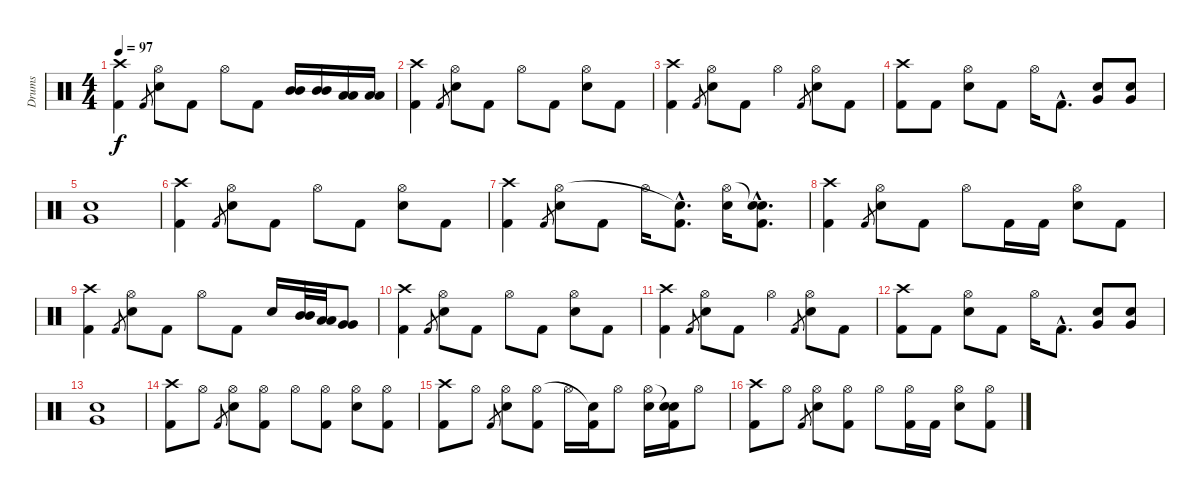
\track ("Drums" "Drums") {instrument percussion}
\staff {score}
\articulation defaults
\ts (4 4)
\tempo 97
\clef neutral
\ks c
("Kick (hit) 2" "Crash high (hit)").4{dy f} "Kick (hit) 2".8{gr} ("Electric Snare (hit)" "Hi-Hat (open)").8 "Kick (hit) 2".8 "Hi-Hat (open)".8 "Kick (hit) 2".8 ("Mid Tom (hit)" "Mid Tom (hit)").16 ("Mid Tom (hit)" "Mid Tom (hit)").16 ("Low Tom (hit)" "Low Tom (hit)").16 ("Low Tom (hit)" "Low Tom (hit)").16 |
("Kick (hit) 2" "Crash high (hit)").4{volume 10} "Kick (hit) 2".8{gr} ("Electric Snare (hit)" "Hi-Hat (open)").8 "Kick (hit) 2".8 "Hi-Hat (open)".8 "Kick (hit) 2".8 ("Electric Snare (hit)" "Hi-Hat (open)").8 "Kick (hit) 2".8 |
("Kick (hit) 2" "Crash high (hit)").4 "Kick (hit) 2".8{gr} ("Electric Snare (hit)" "Hi-Hat (open)").8 "Kick (hit) 2".8 "Hi-Hat (open)".4 "Kick (hit) 2".8{gr} ("Electric Snare (hit)" "Hi-Hat (open)").8 "Kick (hit) 2".8 |
("Kick (hit) 2" "Crash high (hit)").8 "Kick (hit) 2".8 ("Electric Snare (hit)" "Hi-Hat (open)").8 "Kick (hit) 2".8 "Hi-Hat (open)".16 "Kick (hit) 2"{hac}.8{d} ("Electric Snare (hit)" "Very Low Tom (hit)").8 ("Electric Snare (hit)" "Very Low Tom (hit)").8 |
("Electric Snare (hit)" "Very Low Tom (hit)").1 |
("Kick (hit) 2" "Crash high (hit)").4{volume 10} "Kick (hit) 2".8{gr} ("Electric Snare (hit)" "Hi-Hat (open)").8 "Kick (hit) 2".8 "Hi-Hat (open)".8 "Kick (hit) 2".8 ("Electric Snare (hit)" "Hi-Hat (open)").8 "Kick (hit) 2".8 |
("Kick (hit) 2" "Crash high (hit)").4 "Kick (hit) 2".8{gr} ("Electric Snare (hit)" "Hi-Hat (open)").8 "Kick (hit) 2".8 "Hi-Hat (open)".16 ("Kick (hit) 2"{hac} "Snare (hit)"{hac t}).8{d} ("Electric Snare (hit)" "Hi-Hat (open)").16 ("Kick (hit) 2"{hac} "Snare (hit)"{hac t} "Snare (hit)"{hac}).8{d} |
("Kick (hit) 2" "Crash high (hit)").4 "Kick (hit) 2".8{gr} ("Electric Snare (hit)" "Hi-Hat (open)").8 "Kick (hit) 2".8 "Hi-Hat (open)".8 "Kick (hit) 2".16 "Kick (hit) 2".16 ("Electric Snare (hit)" "Hi-Hat (open)").8 "Kick (hit) 2".8 |
("Kick (hit) 2" "Crash high (hit)").4 "Kick (hit) 2".8{gr} ("Electric Snare (hit)" "Hi-Hat (open)").8 "Kick (hit) 2".8 "Hi-Hat (open)".8 "Kick (hit) 2".8 "Electric Snare (hit)".16 ("Mid Tom (hit)" "Mid Tom (hit)").32 ("Low Tom (hit)" "Low Tom (hit)").32 ("Very Low Tom (hit)" "Very Low Tom (hit)").8 |
("Kick (hit) 2" "Crash high (hit)").4{volume 10} "Kick (hit) 2".8{gr} ("Electric Snare (hit)" "Hi-Hat (open)").8 "Kick (hit) 2".8 "Hi-Hat (open)".8 "Kick (hit) 2".8 ("Electric Snare (hit)" "Hi-Hat (open)").8 "Kick (hit) 2".8 |
("Kick (hit) 2" "Crash high (hit)").4 "Kick (hit) 2".8{gr} ("Electric Snare (hit)" "Hi-Hat (open)").8 "Kick (hit) 2".8 "Hi-Hat (open)".4 "Kick (hit) 2".8{gr} ("Electric Snare (hit)" "Hi-Hat (open)").8 "Kick (hit) 2".8 |
("Kick (hit) 2" "Crash high (hit)").8 "Kick (hit) 2".8 ("Electric Snare (hit)" "Hi-Hat (open)").8 "Kick (hit) 2".8 "Hi-Hat (open)".16 "Kick (hit) 2"{hac}.8{d} ("Electric Snare (hit)" "Very Low Tom (hit)").8 ("Electric Snare (hit)" "Very Low Tom (hit)").8 |
("Electric Snare (hit)" "Very Low Tom (hit)").1 |
("Kick (hit) 2" "Crash high (hit)").8{volume 10} "Hi-Hat (open)".8 "Kick (hit) 2".8{gr} ("Electric Snare (hit)" "Hi-Hat (open)").8 ("Kick (hit) 2" "Hi-Hat (open)").8 "Hi-Hat (open)".8 ("Kick (hit) 2" "Hi-Hat (open)").8 ("Electric Snare (hit)" "Hi-Hat (open)").8 ("Kick (hit) 2" "Hi-Hat (open)").8 |
("Kick (hit) 2" "Crash high (hit)").8 "Hi-Hat (open)".8 "Kick (hit) 2".8{gr} ("Electric Snare (hit)" "Hi-Hat (open)").8 ("Kick (hit) 2" "Hi-Hat (open)").8 "Hi-Hat (open)".16 ("Kick (hit) 2" "Snare (hit)"{t}).16 "Hi-Hat (open)".8 ("Electric Snare (hit)" "Hi-Hat (open)").16 ("Kick (hit) 2" "Snare (hit)"{t} "Snare (hit)").16 "Hi-Hat (open)".8 |
("Kick (hit) 2" "Crash high (hit)").8 "Hi-Hat (open)".8 "Kick (hit) 2".8{gr} ("Electric Snare (hit)" "Hi-Hat (open)").8 ("Kick (hit) 2" "Hi-Hat (open)").8 "Hi-Hat (open)".8 ("Kick (hit) 2" "Hi-Hat (open)").16 "Kick (hit) 2".16 ("Electric Snare (hit)" "Hi-Hat (open)").8 ("Kick (hit) 2" "Hi-Hat (open)").8
